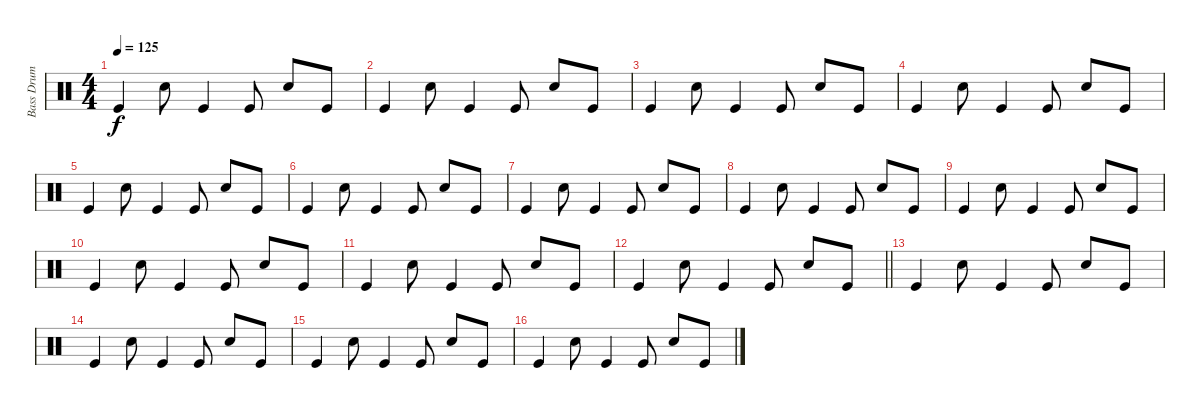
\track ("Bass Drum and Clap" "Bass Drum ") {instrument percussion}
\staff {score}
\articulation defaults
\ts (4 4)
\tempo 125
\clef neutral
\ks c "Kick (hit)".4{dy f} "Hand Clap (hit)".8 "Kick (hit)".4 "Kick (hit)".8 "Hand Clap (hit)".8 "Kick (hit)".8
|
"Kick (hit)".4 "Hand Clap (hit)".8 "Kick (hit)".4 "Kick (hit)".8 "Hand Clap (hit)".8 "Kick (hit)".8 |
"Kick (hit)".4 "Hand Clap (hit)".8 "Kick (hit)".4 "Kick (hit)".8 "Hand Clap (hit)".8 "Kick (hit)".8 |
"Kick (hit)".4 "Hand Clap (hit)".8 "Kick (hit)".4 "Kick (hit)".8 "Hand Clap (hit)".8 "Kick (hit)".8 |
"Kick (hit)".4 "Hand Clap (hit)".8 "Kick (hit)".4 "Kick (hit)".8 "Hand Clap (hit)".8 "Kick (hit)".8 |
"Kick (hit)".4 "Hand Clap (hit)".8 "Kick (hit)".4 "Kick (hit)".8 "Hand Clap (hit)".8 "Kick (hit)".8 |
"Kick (hit)".4 "Hand Clap (hit)".8 "Kick (hit)".4 "Kick (hit)".8 "Hand Clap (hit)".8 "Kick (hit)".8 |
"Kick (hit)".4 "Hand Clap (hit)".8 "Kick (hit)".4 "Kick (hit)".8 "Hand Clap (hit)".8 "Kick (hit)".8 |
"Kick (hit)".4 "Hand Clap (hit)".8 "Kick (hit)".4 "Kick (hit)".8 "Hand Clap (hit)".8 "Kick (hit)".8 |
"Kick (hit)".4 "Hand Clap (hit)".8 "Kick (hit)".4 "Kick (hit)".8 "Hand Clap (hit)".8 "Kick (hit)".8 |
"Kick (hit)".4 "Hand Clap (hit)".8 "Kick (hit)".4 "Kick (hit)".8 "Hand Clap (hit)".8 "Kick (hit)".8 |
\barLineRight lightlight "Kick (hit)".4 "Hand Clap (hit)".8 "Kick (hit)".4 "Kick (hit)".8 "Hand Clap (hit)".8 "Kick (hit)".8
|
"Kick (hit)".4 "Hand Clap (hit)".8 "Kick (hit)".4 "Kick (hit)".8 "Hand Clap (hit)".8 "Kick (hit)".8 |
"Kick (hit)".4 "Hand Clap (hit)".8 "Kick (hit)".4 "Kick (hit)".8 "Hand Clap (hit)".8 "Kick (hit)".8 |
"Kick (hit)".4 "Hand Clap (hit)".8 "Kick (hit)".4 "Kick (hit)".8 "Hand Clap (hit)".8 "Kick (hit)".8 |
"Kick (hit)".4 "Hand Clap (hit)".8 "Kick (hit)".4 "Kick (hit)".8 "Hand Clap (hit)".8 "Kick (hit)".8
